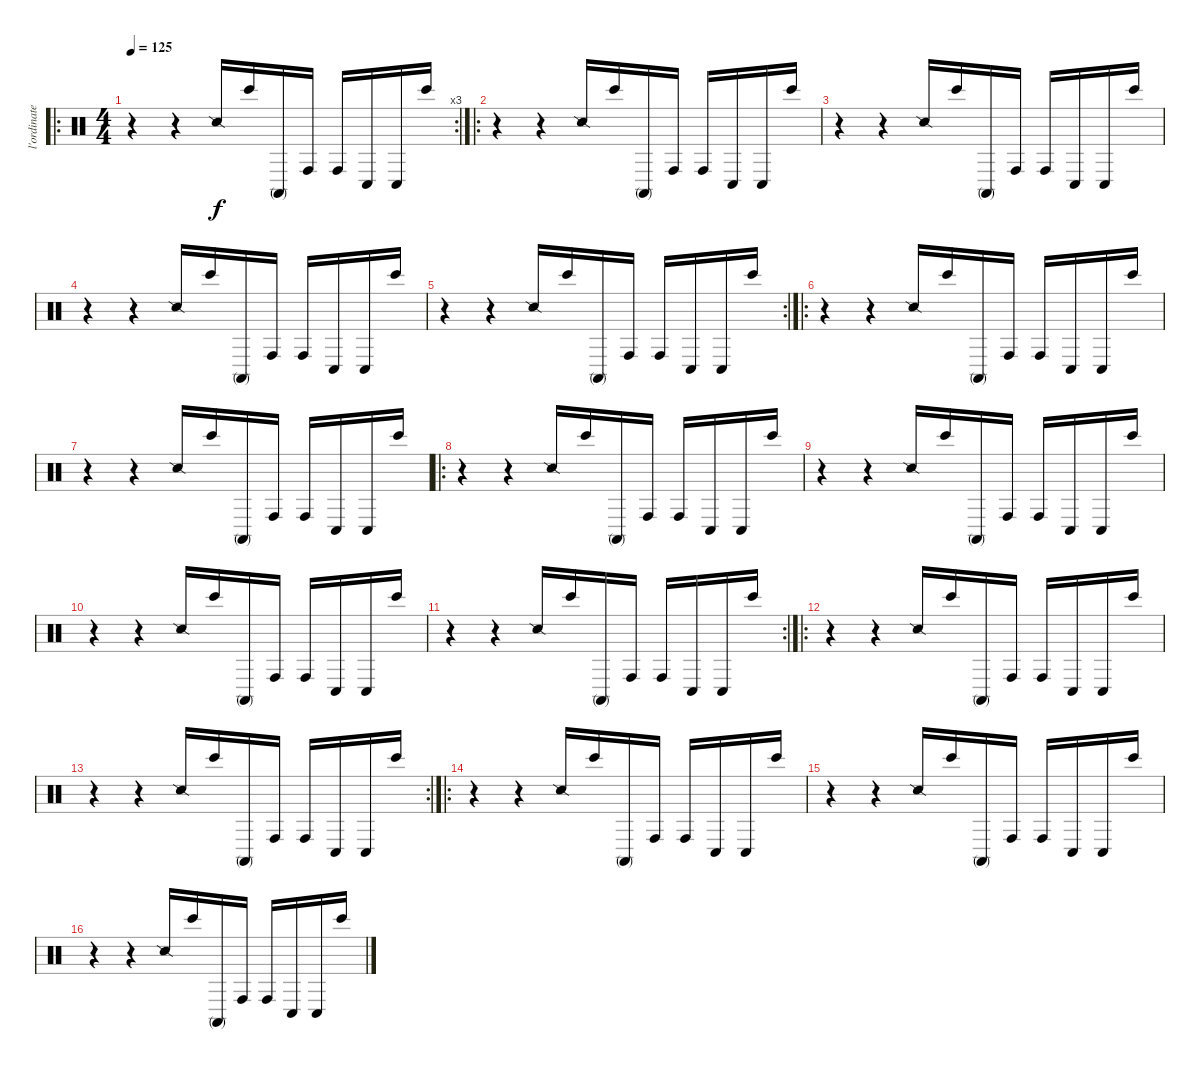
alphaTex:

\track ("l'ordinateur numero 2-(synth batterie)" "l'ordinate") {instrument percussion}
\staff {score}
\articulation defaults
\ro
\rc 3
\ts (4 4)
\tempo 125
\clef neutral
\ks c
r.4{dy f} r.4 "Snare (side stick) 2".16 "Bongo High (hit)".16 "Conga high (mute)".16 "Conga high (hit)".16 "Conga high (hit)".16 "Conga low (hit)".16 "Conga low (hit)".16 "Bongo High (hit)".16 |
\ro
r.4 r.4 "Snare (side stick) 2".16 "Bongo High (hit)".16 "Conga high (mute)".16 "Conga high (hit)".16 "Conga high (hit)".16 "Conga low (hit)".16 "Conga low (hit)".16 "Bongo High (hit)".16 |
r.4 r.4 "Snare (side stick) 2".16 "Bongo High (hit)".16 "Conga high (mute)".16 "Conga high (hit)".16 "Conga high (hit)".16 "Conga low (hit)".16 "Conga low (hit)".16 "Bongo High (hit)".16 |
r.4 r.4 "Snare (side stick) 2".16 "Bongo High (hit)".16 "Conga high (mute)".16 "Conga high (hit)".16 "Conga high (hit)".16 "Conga low (hit)".16 "Conga low (hit)".16 "Bongo High (hit)".16 |
\rc 2
r.4 r.4 "Snare (side stick) 2".16 "Bongo High (hit)".16 "Conga high (mute)".16 "Conga high (hit)".16 "Conga high (hit)".16 "Conga low (hit)".16 "Conga low (hit)".16 "Bongo High (hit)".16 |
\ro
r.4 r.4 "Snare (side stick) 2".16 "Bongo High (hit)".16 "Conga high (mute)".16 "Conga high (hit)".16 "Conga high (hit)".16 "Conga low (hit)".16 "Conga low (hit)".16 "Bongo High (hit)".16 |
r.4 r.4 "Snare (side stick) 2".16 "Bongo High (hit)".16 "Conga high (mute)".16 "Conga high (hit)".16 "Conga high (hit)".16 "Conga low (hit)".16 "Conga low (hit)".16 "Bongo High (hit)".16 |
\ro
r.4 r.4 "Snare (side stick) 2".16 "Bongo High (hit)".16 "Conga high (mute)".16 "Conga high (hit)".16 "Conga high (hit)".16 "Conga low (hit)".16 "Conga low (hit)".16 "Bongo High (hit)".16 |
r.4 r.4 "Snare (side stick) 2".16 "Bongo High (hit)".16 "Conga high (mute)".16 "Conga high (hit)".16 "Conga high (hit)".16 "Conga low (hit)".16 "Conga low (hit)".16 "Bongo High (hit)".16 |
r.4 r.4 "Snare (side stick) 2".16 "Bongo High (hit)".16 "Conga high (mute)".16 "Conga high (hit)".16 "Conga high (hit)".16 "Conga low (hit)".16 "Conga low (hit)".16 "Bongo High (hit)".16 |
\rc 2
r.4 r.4 "Snare (side stick) 2".16 "Bongo High (hit)".16 "Conga high (mute)".16 "Conga high (hit)".16 "Conga high (hit)".16 "Conga low (hit)".16 "Conga low (hit)".16 "Bongo High (hit)".16 |
\ro
r.4 r.4 "Snare (side stick) 2".16 "Bongo High (hit)".16 "Conga high (mute)".16 "Conga high (hit)".16 "Conga high (hit)".16 "Conga low (hit)".16 "Conga low (hit)".16 "Bongo High (hit)".16 |
\rc 2
r.4 r.4 "Snare (side stick) 2".16 "Bongo High (hit)".16 "Conga high (mute)".16 "Conga high (hit)".16 "Conga high (hit)".16 "Conga low (hit)".16 "Conga low (hit)".16 "Bongo High (hit)".16 |
\ro
r.4 r.4 "Snare (side stick) 2".16 "Bongo High (hit)".16 "Conga high (mute)".16 "Conga high (hit)".16 "Conga high (hit)".16 "Conga low (hit)".16 "Conga low (hit)".16 "Bongo High (hit)".16 |
r.4 r.4 "Snare (side stick) 2".16 "Bongo High (hit)".16 "Conga high (mute)".16 "Conga high (hit)".16 "Conga high (hit)".16 "Conga low (hit)".16 "Conga low (hit)".16 "Bongo High (hit)".16 |
r.4 r.4 "Snare (side stick) 2".16 "Bongo High (hit)".16 "Conga high (mute)".16 "Conga high (hit)".16 "Conga high (hit)".16 "Conga low (hit)".16 "Conga low (hit)".16 "Bongo High (hit)".16
